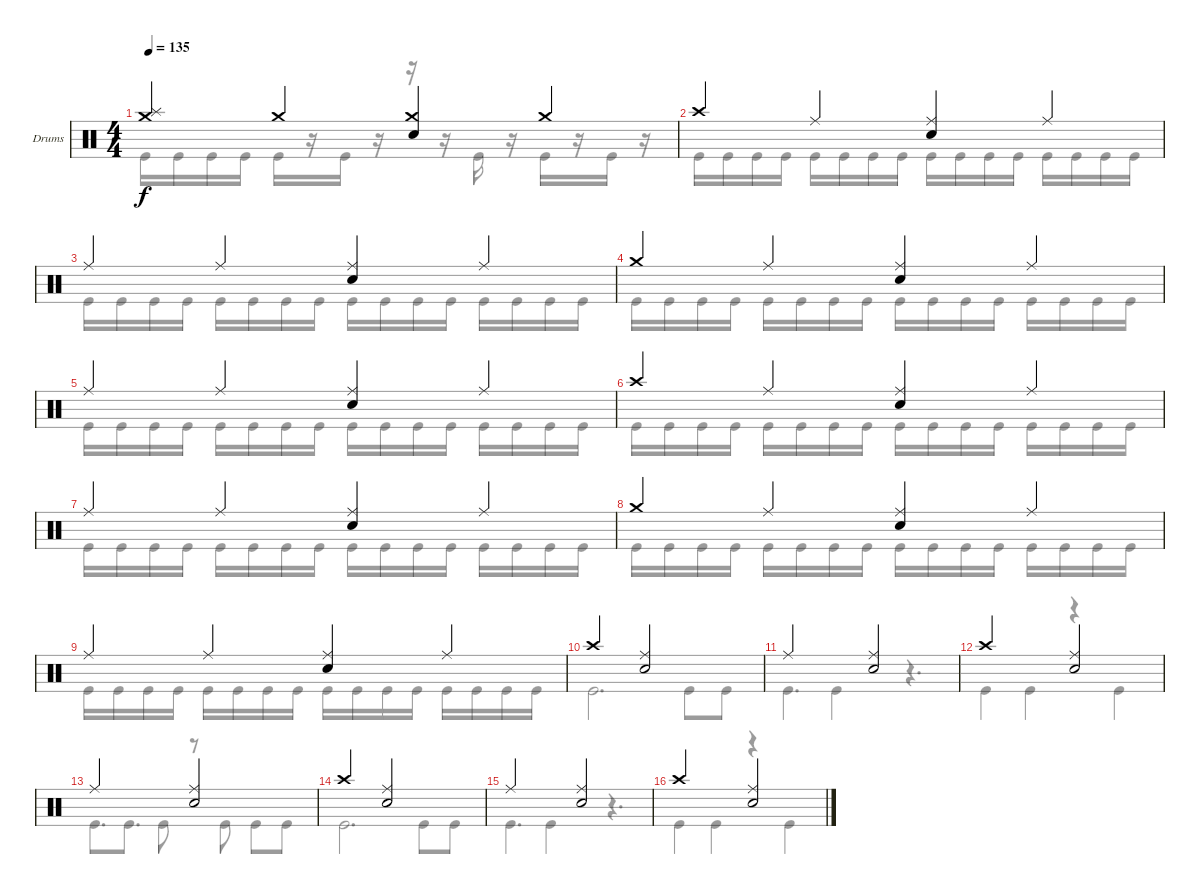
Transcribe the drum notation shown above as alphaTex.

\defaultSystemsLayout 4
\bracketExtendMode groupsimilarinstruments
\firstSystemTrackNameOrientation horizontal
\otherSystemsTrackNameOrientation horizontal
\track ("Drumkit" "Drums") {instrument percussion}
\staff {score}
\articulation defaults
\voice
\ts (4 4)
\tempo 135
\clef neutral
\ks c
("Crash medium (hit)" "Splash (hit)").4{dy f} "Crash medium (hit)".4 ("Crash medium (hit)" "Snare (hit) 2").4 "Crash medium (hit)".4 |
"Crash high (hit)".4 "Ride (middle)".4 ("Ride (middle)" "Snare (hit) 2").4 "Ride (middle)".4 |
"Ride (middle)".4 "Ride (middle)".4 ("Ride (middle)" "Snare (hit) 2").4 "Ride (middle)".4 |
"Crash medium (hit)".4 "Ride (middle)".4 ("Ride (middle)" "Snare (hit) 2").4 "Ride (middle)".4 |
"Ride (middle)".4 "Ride (middle)".4 ("Ride (middle)" "Snare (hit) 2").4 "Ride (middle)".4 |
"Crash high (hit)".4 "Ride (middle)".4 ("Ride (middle)" "Snare (hit) 2").4 "Ride (middle)".4 |
"Ride (middle)".4 "Ride (middle)".4 ("Ride (middle)" "Snare (hit) 2").4 "Ride (middle)".4 |
"Crash medium (hit)".4 "Ride (middle)".4 ("Ride (middle)" "Snare (hit) 2").4 "Ride (middle)".4 |
"Ride (middle)".4 "Ride (middle)".4 ("Ride (middle)" "Snare (hit) 2").4 "Ride (middle)".4 |
"Crash high (hit)".2 ("Ride (middle)" "Snare (hit) 2").2 |
"Ride (middle)".2 ("Ride (middle)" "Snare (hit) 2").2 |
"Crash high (hit)".2 ("Ride (middle)" "Snare (hit) 2").2 |
"Ride (middle)".2 ("Ride (middle)" "Snare (hit) 2").2 |
"Crash high (hit)".2 ("Ride (middle)" "Snare (hit) 2").2 |
"Ride (middle)".2 ("Ride (middle)" "Snare (hit) 2").2 |
"Crash high (hit)".2 ("Ride (middle)" "Snare (hit) 2").2
\voice
\clef neutral
\ottava regular
\simile none
\ks c "Kick (hit)".16{dy f} "Kick (hit)".16 "Kick (hit)".16 "Kick (hit)".16 "Kick (hit)".16
r.16 "Kick (hit)".16 r.16 r.16 r.16 "Kick (hit)".16 r.16 "Kick (hit)".16 r.16 "Kick (hit)".16 r.16 |
"Kick (hit)".16 "Kick (hit)".16 "Kick (hit)".16 "Kick (hit)".16 "Kick (hit)".16 "Kick (hit)".16 "Kick (hit)".16 "Kick (hit)".16 "Kick (hit)".16 "Kick (hit)".16 "Kick (hit)".16 "Kick (hit)".16 "Kick (hit)".16 "Kick (hit)".16 "Kick (hit)".16 "Kick (hit)".16 |
"Kick (hit)".16 "Kick (hit)".16 "Kick (hit)".16 "Kick (hit)".16 "Kick (hit)".16 "Kick (hit)".16 "Kick (hit)".16 "Kick (hit)".16 "Kick (hit)".16 "Kick (hit)".16 "Kick (hit)".16 "Kick (hit)".16 "Kick (hit)".16 "Kick (hit)".16 "Kick (hit)".16 "Kick (hit)".16 |
"Kick (hit)".16 "Kick (hit)".16 "Kick (hit)".16 "Kick (hit)".16 "Kick (hit)".16 "Kick (hit)".16 "Kick (hit)".16 "Kick (hit)".16 "Kick (hit)".16 "Kick (hit)".16 "Kick (hit)".16 "Kick (hit)".16 "Kick (hit)".16 "Kick (hit)".16 "Kick (hit)".16 "Kick (hit)".16 |
"Kick (hit)".16 "Kick (hit)".16 "Kick (hit)".16 "Kick (hit)".16 "Kick (hit)".16 "Kick (hit)".16 "Kick (hit)".16 "Kick (hit)".16 "Kick (hit)".16 "Kick (hit)".16 "Kick (hit)".16 "Kick (hit)".16 "Kick (hit)".16 "Kick (hit)".16 "Kick (hit)".16 "Kick (hit)".16 |
"Kick (hit)".16 "Kick (hit)".16 "Kick (hit)".16 "Kick (hit)".16 "Kick (hit)".16 "Kick (hit)".16 "Kick (hit)".16 "Kick (hit)".16 "Kick (hit)".16 "Kick (hit)".16 "Kick (hit)".16 "Kick (hit)".16 "Kick (hit)".16 "Kick (hit)".16 "Kick (hit)".16 "Kick (hit)".16 |
"Kick (hit)".16 "Kick (hit)".16 "Kick (hit)".16 "Kick (hit)".16 "Kick (hit)".16 "Kick (hit)".16 "Kick (hit)".16 "Kick (hit)".16 "Kick (hit)".16 "Kick (hit)".16 "Kick (hit)".16 "Kick (hit)".16 "Kick (hit)".16 "Kick (hit)".16 "Kick (hit)".16 "Kick (hit)".16 |
"Kick (hit)".16 "Kick (hit)".16 "Kick (hit)".16 "Kick (hit)".16 "Kick (hit)".16 "Kick (hit)".16 "Kick (hit)".16 "Kick (hit)".16 "Kick (hit)".16 "Kick (hit)".16 "Kick (hit)".16 "Kick (hit)".16 "Kick (hit)".16 "Kick (hit)".16 "Kick (hit)".16 "Kick (hit)".16 |
"Kick (hit)".16 "Kick (hit)".16 "Kick (hit)".16 "Kick (hit)".16 "Kick (hit)".16 "Kick (hit)".16 "Kick (hit)".16 "Kick (hit)".16 "Kick (hit)".16 "Kick (hit)".16 "Kick (hit)".16 "Kick (hit)".16 "Kick (hit)".16 "Kick (hit)".16 "Kick (hit)".16 "Kick (hit)".16 |
"Kick (hit)".2{d} "Kick (hit)".8 "Kick (hit)".8 |
"Kick (hit)".4{d} "Kick (hit)".4 r.4{d} |
"Kick (hit)".4 "Kick (hit)".4 r.4 "Kick (hit)".4 |
"Kick (hit)".8{d} "Kick (hit)".8{d} "Kick (hit)".8 r.8 "Kick (hit)".8 "Kick (hit)".8 "Kick (hit)".8 |
"Kick (hit)".2{d} "Kick (hit)".8 "Kick (hit)".8 |
"Kick (hit)".4{d} "Kick (hit)".4 r.4{d} |
"Kick (hit)".4 "Kick (hit)".4 r.4 "Kick (hit)".4
